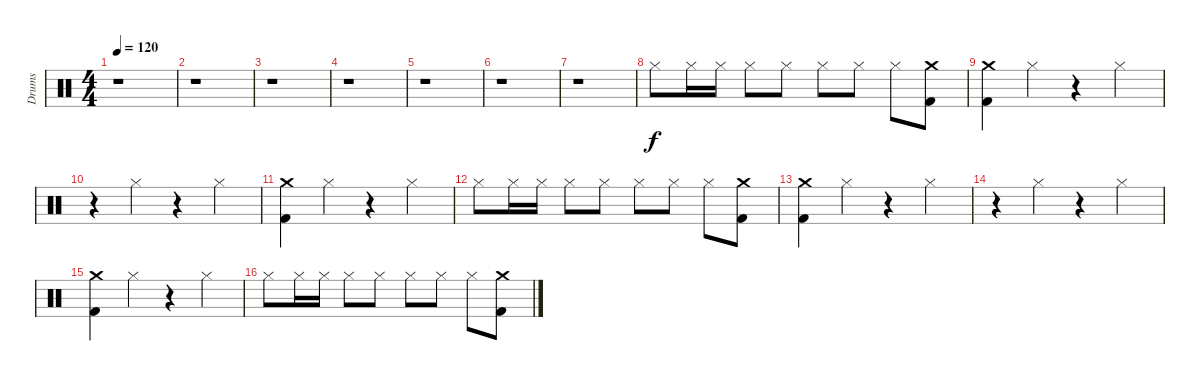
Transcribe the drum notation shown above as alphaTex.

\track ("Drums" "Drums") {instrument percussion}
\staff {score}
\articulation defaults
\ts (4 4)
\tempo 120
\clef neutral
\ks c
r.1{dy f} |
r.1 |
r.1 |
r.1 |
r.1 |
r.1 |
r.1 |
"Hi-Hat (closed)".8 "Hi-Hat (closed)".16 "Hi-Hat (closed)".16 "Hi-Hat (closed)".8 "Hi-Hat (closed)".8 "Hi-Hat (closed)".8 "Hi-Hat (closed)".8 "Hi-Hat (closed)".8 ("Kick (hit) 2" "Crash medium (hit)").8 |
("Kick (hit) 2" "Crash medium (hit)").4 "Hi-Hat (closed)".4 r.4 "Hi-Hat (closed)".4 |
r.4 "Hi-Hat (closed)".4 r.4 "Hi-Hat (closed)".4 |
("Kick (hit) 2" "Crash medium (hit)").4 "Hi-Hat (closed)".4 r.4 "Hi-Hat (closed)".4 |
"Hi-Hat (closed)".8 "Hi-Hat (closed)".16 "Hi-Hat (closed)".16 "Hi-Hat (closed)".8 "Hi-Hat (closed)".8 "Hi-Hat (closed)".8 "Hi-Hat (closed)".8 "Hi-Hat (closed)".8 ("Kick (hit) 2" "Crash medium (hit)").8 |
("Kick (hit) 2" "Crash medium (hit)").4 "Hi-Hat (closed)".4 r.4 "Hi-Hat (closed)".4 |
r.4 "Hi-Hat (closed)".4 r.4 "Hi-Hat (closed)".4 |
("Kick (hit) 2" "Crash medium (hit)").4 "Hi-Hat (closed)".4 r.4 "Hi-Hat (closed)".4 |
"Hi-Hat (closed)".8 "Hi-Hat (closed)".16 "Hi-Hat (closed)".16 "Hi-Hat (closed)".8 "Hi-Hat (closed)".8 "Hi-Hat (closed)".8 "Hi-Hat (closed)".8 "Hi-Hat (closed)".8 ("Kick (hit) 2" "Crash medium (hit)").8
